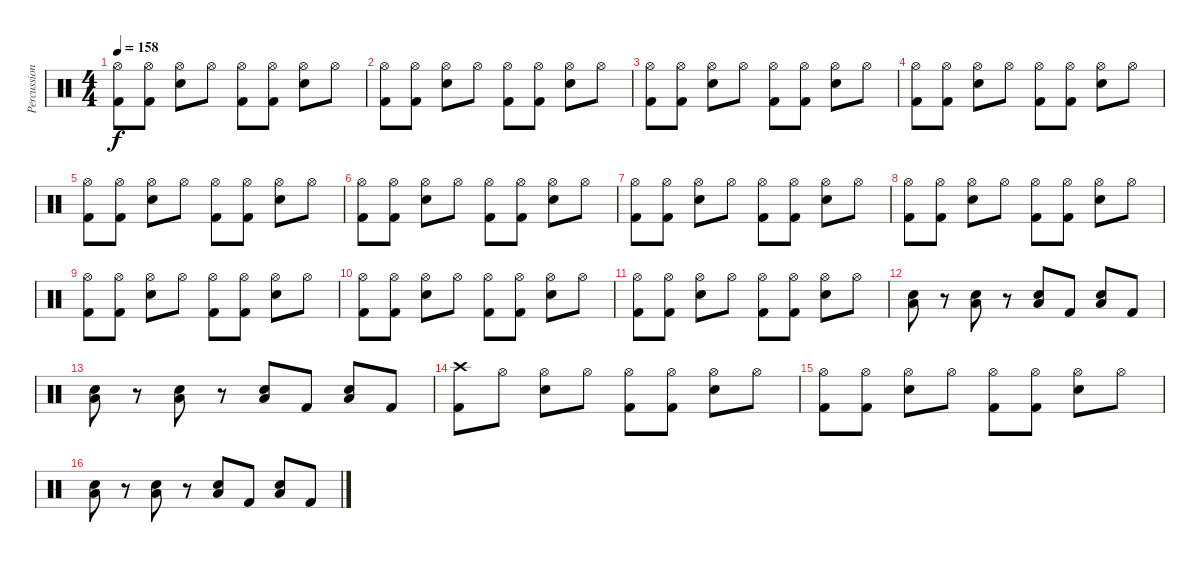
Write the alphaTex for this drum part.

\track ("Percussion" "Percussion") {instrument percussion}
\staff {score}
\articulation defaults
\ts (4 4)
\tempo 158
\clef neutral
\ks c
("Hi-Hat (open)" "Kick (hit) 2").8{dy f} ("Hi-Hat (open)" "Kick (hit) 2").8 ("Hi-Hat (open)" "Electric Snare (hit)").8 "Hi-Hat (open)".8 ("Hi-Hat (open)" "Kick (hit) 2").8 ("Hi-Hat (open)" "Kick (hit) 2").8 ("Hi-Hat (open)" "Electric Snare (hit)").8 "Hi-Hat (open)".8 |
("Hi-Hat (open)" "Kick (hit) 2").8 ("Hi-Hat (open)" "Kick (hit) 2").8 ("Hi-Hat (open)" "Electric Snare (hit)").8 "Hi-Hat (open)".8 ("Hi-Hat (open)" "Kick (hit) 2").8 ("Hi-Hat (open)" "Kick (hit) 2").8 ("Hi-Hat (open)" "Electric Snare (hit)").8 "Hi-Hat (open)".8 |
("Hi-Hat (open)" "Kick (hit) 2").8 ("Hi-Hat (open)" "Kick (hit) 2").8 ("Hi-Hat (open)" "Electric Snare (hit)").8 "Hi-Hat (open)".8 ("Hi-Hat (open)" "Kick (hit) 2").8 ("Hi-Hat (open)" "Kick (hit) 2").8 ("Hi-Hat (open)" "Electric Snare (hit)").8 "Hi-Hat (open)".8 |
("Hi-Hat (open)" "Kick (hit) 2").8 ("Hi-Hat (open)" "Kick (hit) 2").8 ("Hi-Hat (open)" "Electric Snare (hit)").8 "Hi-Hat (open)".8 ("Hi-Hat (open)" "Kick (hit) 2").8 ("Hi-Hat (open)" "Kick (hit) 2").8 ("Hi-Hat (open)" "Electric Snare (hit)").8 "Hi-Hat (open)".8 |
("Hi-Hat (open)" "Kick (hit) 2").8 ("Hi-Hat (open)" "Kick (hit) 2").8 ("Hi-Hat (open)" "Electric Snare (hit)").8 "Hi-Hat (open)".8 ("Hi-Hat (open)" "Kick (hit) 2").8 ("Hi-Hat (open)" "Kick (hit) 2").8 ("Hi-Hat (open)" "Electric Snare (hit)").8 "Hi-Hat (open)".8 |
("Hi-Hat (open)" "Kick (hit) 2").8 ("Hi-Hat (open)" "Kick (hit) 2").8 ("Hi-Hat (open)" "Electric Snare (hit)").8 "Hi-Hat (open)".8 ("Hi-Hat (open)" "Kick (hit) 2").8 ("Hi-Hat (open)" "Kick (hit) 2").8 ("Hi-Hat (open)" "Electric Snare (hit)").8 "Hi-Hat (open)".8 |
("Hi-Hat (open)" "Kick (hit) 2").8 ("Hi-Hat (open)" "Kick (hit) 2").8 ("Hi-Hat (open)" "Electric Snare (hit)").8 "Hi-Hat (open)".8 ("Hi-Hat (open)" "Kick (hit) 2").8 ("Hi-Hat (open)" "Kick (hit) 2").8 ("Hi-Hat (open)" "Electric Snare (hit)").8 "Hi-Hat (open)".8 |
("Hi-Hat (open)" "Kick (hit) 2").8 ("Hi-Hat (open)" "Kick (hit) 2").8 ("Hi-Hat (open)" "Electric Snare (hit)").8 "Hi-Hat (open)".8 ("Hi-Hat (open)" "Kick (hit) 2").8 ("Hi-Hat (open)" "Kick (hit) 2").8 ("Hi-Hat (open)" "Electric Snare (hit)").8 "Hi-Hat (open)".8 |
("Hi-Hat (open)" "Kick (hit) 2").8 ("Hi-Hat (open)" "Kick (hit) 2").8 ("Hi-Hat (open)" "Electric Snare (hit)").8 "Hi-Hat (open)".8 ("Hi-Hat (open)" "Kick (hit) 2").8 ("Hi-Hat (open)" "Kick (hit) 2").8 ("Hi-Hat (open)" "Electric Snare (hit)").8 "Hi-Hat (open)".8 |
("Hi-Hat (open)" "Kick (hit) 2").8 ("Hi-Hat (open)" "Kick (hit) 2").8 ("Hi-Hat (open)" "Electric Snare (hit)").8 "Hi-Hat (open)".8 ("Hi-Hat (open)" "Kick (hit) 2").8 ("Hi-Hat (open)" "Kick (hit) 2").8 ("Hi-Hat (open)" "Electric Snare (hit)").8 "Hi-Hat (open)".8 |
("Hi-Hat (open)" "Kick (hit) 2").8 ("Hi-Hat (open)" "Kick (hit) 2").8 ("Hi-Hat (open)" "Electric Snare (hit)").8 "Hi-Hat (open)".8 ("Hi-Hat (open)" "Kick (hit) 2").8 ("Hi-Hat (open)" "Kick (hit) 2").8 ("Hi-Hat (open)" "Electric Snare (hit)").8 "Hi-Hat (open)".8 |
("Electric Snare (hit)" "Low Floor Tom (hit)").8 r.8 ("Electric Snare (hit)" "Low Floor Tom (hit)").8 r.8 ("Electric Snare (hit)" "Low Floor Tom (hit)").8 "Kick (hit) 2".8 ("Electric Snare (hit)" "Low Floor Tom (hit)").8 "Kick (hit) 2".8 |
("Electric Snare (hit)" "Low Floor Tom (hit)").8 r.8 ("Electric Snare (hit)" "Low Floor Tom (hit)").8 r.8 ("Electric Snare (hit)" "Low Floor Tom (hit)").8 "Kick (hit) 2".8 ("Electric Snare (hit)" "Low Floor Tom (hit)").8 "Kick (hit) 2".8 |
("Crash high (hit)" "Kick (hit) 2").8 "Hi-Hat (open)".8 ("Hi-Hat (open)" "Electric Snare (hit)").8 "Hi-Hat (open)".8 ("Hi-Hat (open)" "Kick (hit) 2").8 ("Hi-Hat (open)" "Kick (hit) 2").8 ("Hi-Hat (open)" "Electric Snare (hit)").8 "Hi-Hat (open)".8 |
("Hi-Hat (open)" "Kick (hit) 2").8 ("Hi-Hat (open)" "Kick (hit) 2").8 ("Hi-Hat (open)" "Electric Snare (hit)").8 "Hi-Hat (open)".8 ("Hi-Hat (open)" "Kick (hit) 2").8 ("Hi-Hat (open)" "Kick (hit) 2").8 ("Hi-Hat (open)" "Electric Snare (hit)").8 "Hi-Hat (open)".8 |
("Electric Snare (hit)" "Low Floor Tom (hit)").8 r.8 ("Electric Snare (hit)" "Low Floor Tom (hit)").8 r.8 ("Electric Snare (hit)" "Low Floor Tom (hit)").8 "Kick (hit) 2".8 ("Electric Snare (hit)" "Low Floor Tom (hit)").8 "Kick (hit) 2".8
